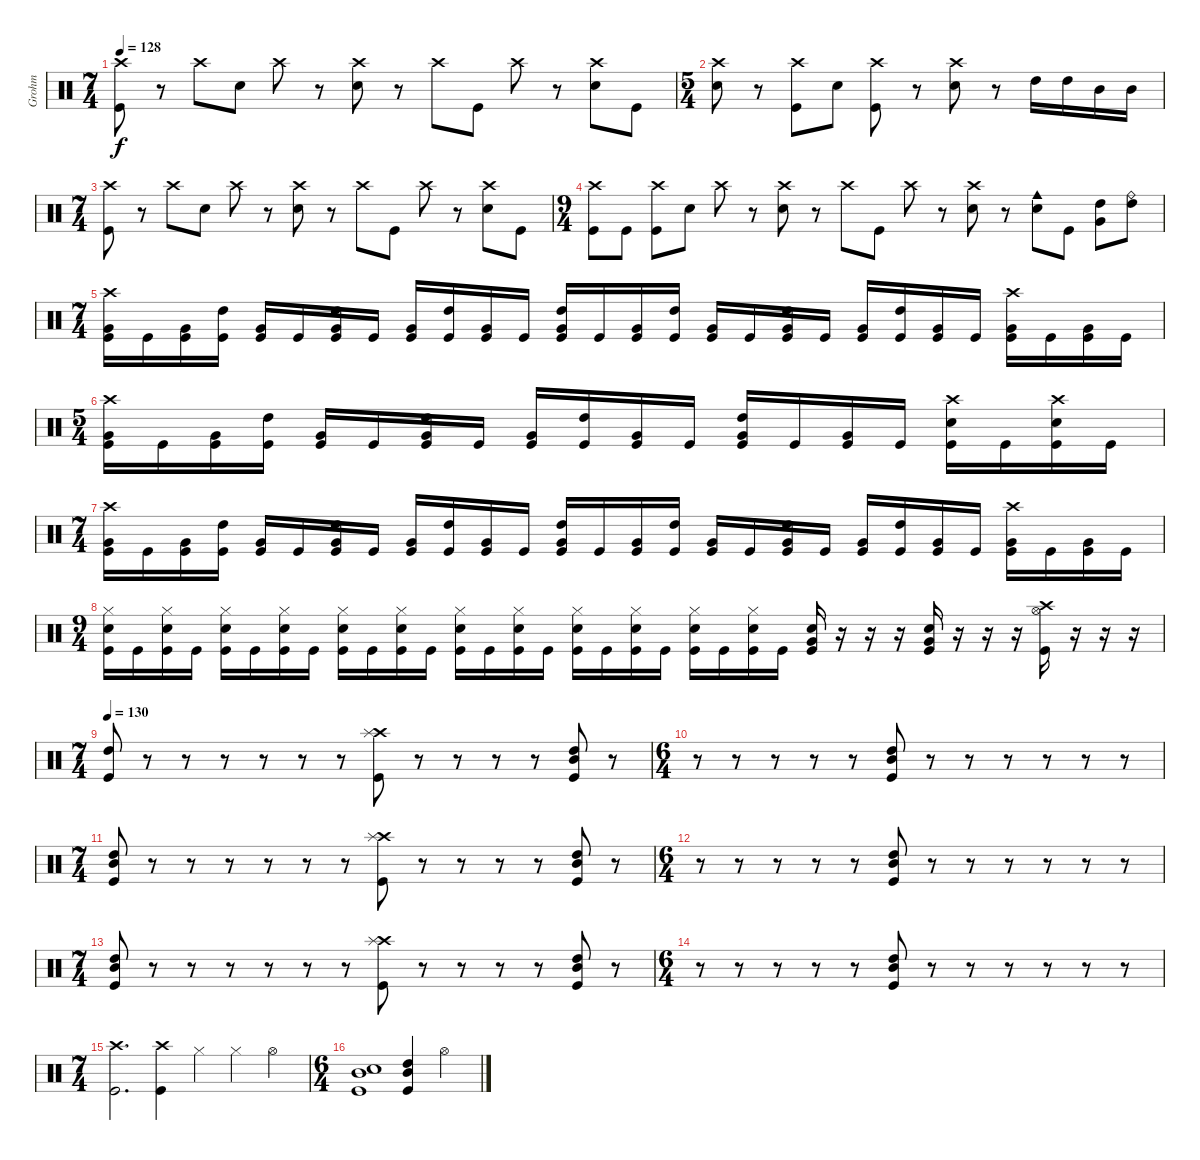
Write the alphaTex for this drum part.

\track ("Grohm" "Grohm") {instrument percussion}
\staff {score}
\articulation defaults
\ts (7 4)
\tempo 128
\clef neutral
\ks c
("Crash high (hit)" "Kick (hit)").8{dy f} r.8 "Crash high (hit)".8 "Snare (hit) 2".8 "Crash high (hit)".8 r.8 ("Crash high (hit)" "Snare (hit) 2").8 r.8 "Crash high (hit)".8 "Kick (hit)".8 "Crash high (hit)".8 r.8 ("Crash high (hit)" "Snare (hit) 2").8 "Kick (hit)".8 |
\ts (5 4)
("Crash high (hit)" "Snare (hit) 2").8 r.8 ("Crash high (hit)" "Kick (hit)").8 "Snare (hit) 2".8 ("Crash high (hit)" "Kick (hit)").8 r.8 ("Crash high (hit)" "Snare (hit) 2").8 r.8 "High Tom (hit)".16 "High Tom (hit)".16 "Mid Tom (hit)".16 "Mid Tom (hit)".16 |
\ts (7 4)
("Crash high (hit)" "Kick (hit)").8 r.8 "Crash high (hit)".8 "Snare (hit) 2".8 "Crash high (hit)".8 r.8 ("Crash high (hit)" "Snare (hit) 2").8 r.8 "Crash high (hit)".8 "Kick (hit)".8 "Crash high (hit)".8 r.8 ("Crash high (hit)" "Snare (hit) 2").8 "Kick (hit)".8 |
\ts (9 4)
("Crash high (hit)" "Kick (hit)").8 "Kick (hit)".8 ("Crash high (hit)" "Kick (hit)").8 "Snare (hit) 2".8 "Crash high (hit)".8 r.8 ("Crash high (hit)" "Snare (hit) 2").8 r.8 "Crash high (hit)".8 "Kick (hit)".8 "Crash high (hit)".8 r.8 ("Crash high (hit)" "Snare (hit) 2").8 r.8 ("Cowbell medium (hit)" "Snare (hit) 2").8 "Kick (hit)".8 ("High Tom (hit)" "Very Low Tom (hit)").8 ("High Tom (hit)" "Ride (bell)").8 |
\ts (7 4)
("Crash high (hit)" "Very Low Tom (hit)" "Kick (hit)").16 "Kick (hit)".16 ("Very Low Tom (hit)" "Kick (hit)").16 ("High Tom (hit)" "Kick (hit)").16 ("Very Low Tom (hit)" "Kick (hit)").16 "Kick (hit)".16 ("High Tom (hit)" "Very Low Tom (hit)" "Kick (hit)").16 "Kick (hit)".16 ("Very Low Tom (hit)" "Kick (hit)").16 ("High Tom (hit)" "Kick (hit)").16 ("Very Low Tom (hit)" "Kick (hit)").16 "Kick (hit)".16 ("High Tom (hit)" "Very Low Tom (hit)" "Kick (hit)").16 "Kick (hit)".16 ("Very Low Tom (hit)" "Kick (hit)").16 ("High Tom (hit)" "Kick (hit)").16 ("Very Low Tom (hit)" "Kick (hit)").16 "Kick (hit)".16 ("High Tom (hit)" "Very Low Tom (hit)" "Kick (hit)").16 "Kick (hit)".16 ("Very Low Tom (hit)" "Kick (hit)").16 ("High Tom (hit)" "Kick (hit)").16 ("Very Low Tom (hit)" "Kick (hit)").16 "Kick (hit)".16 ("Crash high (hit)" "Very Low Tom (hit)" "Kick (hit)").16 "Kick (hit)".16 ("Very Low Tom (hit)" "Kick (hit)").16 "Kick (hit)".16 |
\ts (5 4)
("Crash high (hit)" "Very Low Tom (hit)" "Kick (hit)").16 "Kick (hit)".16 ("Very Low Tom (hit)" "Kick (hit)").16 ("High Tom (hit)" "Kick (hit)").16 ("Very Low Tom (hit)" "Kick (hit)").16 "Kick (hit)".16 ("High Tom (hit)" "Very Low Tom (hit)" "Kick (hit)").16 "Kick (hit)".16 ("Very Low Tom (hit)" "Kick (hit)").16 ("High Tom (hit)" "Kick (hit)").16 ("Very Low Tom (hit)" "Kick (hit)").16 "Kick (hit)".16 ("High Tom (hit)" "Very Low Tom (hit)" "Kick (hit)").16 "Kick (hit)".16 ("Very Low Tom (hit)" "Kick (hit)").16 "Kick (hit)".16 ("Crash high (hit)" "Snare (hit) 2" "Kick (hit)").16 "Kick (hit)".16 ("Crash high (hit)" "Snare (hit) 2" "Kick (hit)").16 "Kick (hit)".16 |
\ts (7 4)
("Crash high (hit)" "Very Low Tom (hit)" "Kick (hit)").16 "Kick (hit)".16 ("Very Low Tom (hit)" "Kick (hit)").16 ("High Tom (hit)" "Kick (hit)").16 ("Very Low Tom (hit)" "Kick (hit)").16 "Kick (hit)".16 ("High Tom (hit)" "Very Low Tom (hit)" "Kick (hit)").16 "Kick (hit)".16 ("Very Low Tom (hit)" "Kick (hit)").16 ("High Tom (hit)" "Kick (hit)").16 ("Very Low Tom (hit)" "Kick (hit)").16 "Kick (hit)".16 ("High Tom (hit)" "Very Low Tom (hit)" "Kick (hit)").16 "Kick (hit)".16 ("Very Low Tom (hit)" "Kick (hit)").16 ("High Tom (hit)" "Kick (hit)").16 ("Very Low Tom (hit)" "Kick (hit)").16 "Kick (hit)".16 ("High Tom (hit)" "Very Low Tom (hit)" "Kick (hit)").16 "Kick (hit)".16 ("Very Low Tom (hit)" "Kick (hit)").16 ("High Tom (hit)" "Kick (hit)").16 ("Very Low Tom (hit)" "Kick (hit)").16 "Kick (hit)".16 ("Crash high (hit)" "Very Low Tom (hit)" "Kick (hit)").16 "Kick (hit)".16 ("Very Low Tom (hit)" "Kick (hit)").16 "Kick (hit)".16 |
\ts (9 4)
("Hi-Hat (closed)" "Snare (hit) 2" "Kick (hit)").16 "Kick (hit)".16 ("Hi-Hat (closed)" "Snare (hit) 2" "Kick (hit)").16 "Kick (hit)".16 ("Hi-Hat (closed)" "Snare (hit) 2" "Kick (hit)").16 "Kick (hit)".16 ("Hi-Hat (closed)" "Snare (hit) 2" "Kick (hit)").16 "Kick (hit)".16 ("Hi-Hat (closed)" "Snare (hit) 2" "Kick (hit)").16 "Kick (hit)".16 ("Hi-Hat (closed)" "Snare (hit) 2" "Kick (hit)").16 "Kick (hit)".16 ("Hi-Hat (closed)" "Snare (hit) 2" "Kick (hit)").16 "Kick (hit)".16 ("Hi-Hat (closed)" "Snare (hit) 2" "Kick (hit)").16 "Kick (hit)".16 ("Hi-Hat (closed)" "Snare (hit) 2" "Kick (hit)").16 "Kick (hit)".16 ("Hi-Hat (closed)" "Snare (hit) 2" "Kick (hit)").16 "Kick (hit)".16 ("Hi-Hat (closed)" "Snare (hit) 2" "Kick (hit)").16 "Kick (hit)".16 ("Hi-Hat (closed)" "Snare (hit) 2" "Kick (hit)").16 "Kick (hit)".16 ("Very Low Tom (hit)" "Snare (hit) 2" "Kick (hit)").16 r.16 r.16 r.16 ("Very Low Tom (hit)" "Snare (hit) 2" "Kick (hit)").16 r.16 r.16 r.16 ("Hi-Hat (open)" "Crash high (hit)" "Kick (hit)").16 r.16 r.16 r.16 |
\ts (7 4)
\tempo 130
("High Tom (hit)" "Kick (hit)").8 r.8 r.8 r.8 r.8 r.8 r.8 ("Crash high (hit)" "Splash (hit)" "Kick (hit)").8 r.8 r.8 r.8 r.8 ("High Tom (hit)" "Mid Tom (hit)" "Kick (hit)").8 r.8 |
\ts (6 4)
r.8 r.8 r.8 r.8 r.8 ("High Tom (hit)" "Mid Tom (hit)" "Kick (hit)").8 r.8 r.8 r.8 r.8 r.8 r.8 |
\ts (7 4)
("High Tom (hit)" "Mid Tom (hit)" "Kick (hit)").8 r.8 r.8 r.8 r.8 r.8 r.8 ("Crash high (hit)" "Splash (hit)" "Kick (hit)").8 r.8 r.8 r.8 r.8 ("High Tom (hit)" "Mid Tom (hit)" "Kick (hit)").8 r.8 |
\ts (6 4)
r.8 r.8 r.8 r.8 r.8 ("High Tom (hit)" "Mid Tom (hit)" "Kick (hit)").8 r.8 r.8 r.8 r.8 r.8 r.8 |
\ts (7 4)
("High Tom (hit)" "Mid Tom (hit)" "Kick (hit)").8 r.8 r.8 r.8 r.8 r.8 r.8 ("Crash high (hit)" "Splash (hit)" "Kick (hit)").8 r.8 r.8 r.8 r.8 ("High Tom (hit)" "Mid Tom (hit)" "Kick (hit)").8 r.8 |
\ts (6 4)
r.8 r.8 r.8 r.8 r.8 ("High Tom (hit)" "Mid Tom (hit)" "Kick (hit)").8 r.8 r.8 r.8 r.8 r.8 r.8 |
\ts (7 4)
("Crash high (hit)" "Kick (hit)").2{d} ("Crash high (hit)" "Kick (hit)").4 "Hi-Hat (closed)".4 "Hi-Hat (closed)".4 "Hi-Hat (open)".4 |
\ts (6 4)
("Mid Tom (hit)" "Snare (hit) 2" "Kick (hit)").1 ("High Tom (hit)" "Mid Tom (hit)" "Kick (hit)").4 "Hi-Hat (open)".4
